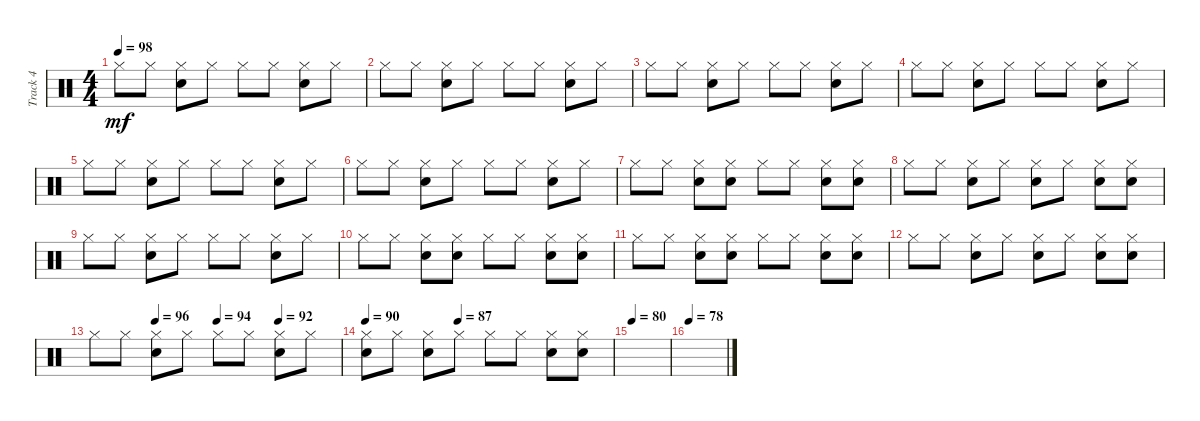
\track ("Track 4" "Track 4") {instrument percussion}
\staff {score}
\articulation defaults
\ts (4 4)
\tempo 98
\clef neutral
\ks c "Hi-Hat (closed)".8{dy mf} "Hi-Hat (closed)".8
("Hi-Hat (closed)" "Snare (hit) 2").8 "Hi-Hat (closed)".8 "Hi-Hat (closed)".8 "Hi-Hat (closed)".8 ("Hi-Hat (closed)" "Snare (hit) 2").8 "Hi-Hat (closed)".8 |
"Hi-Hat (closed)".8 "Hi-Hat (closed)".8 ("Hi-Hat (closed)" "Snare (hit) 2").8 "Hi-Hat (closed)".8 "Hi-Hat (closed)".8 "Hi-Hat (closed)".8 ("Hi-Hat (closed)" "Snare (hit) 2").8 "Hi-Hat (closed)".8 |
"Hi-Hat (closed)".8 "Hi-Hat (closed)".8 ("Hi-Hat (closed)" "Snare (hit) 2").8 "Hi-Hat (closed)".8 "Hi-Hat (closed)".8 "Hi-Hat (closed)".8 ("Hi-Hat (closed)" "Snare (hit) 2").8 "Hi-Hat (closed)".8 |
"Hi-Hat (closed)".8 "Hi-Hat (closed)".8 ("Hi-Hat (closed)" "Snare (hit) 2").8 "Hi-Hat (closed)".8 "Hi-Hat (closed)".8 "Hi-Hat (closed)".8 ("Hi-Hat (closed)" "Snare (hit) 2").8 "Hi-Hat (closed)".8 |
"Hi-Hat (closed)".8 "Hi-Hat (closed)".8 ("Hi-Hat (closed)" "Snare (hit) 2").8 "Hi-Hat (closed)".8 "Hi-Hat (closed)".8 "Hi-Hat (closed)".8 ("Hi-Hat (closed)" "Snare (hit) 2").8 "Hi-Hat (closed)".8 |
"Hi-Hat (closed)".8 "Hi-Hat (closed)".8 ("Hi-Hat (closed)" "Snare (hit) 2").8 "Hi-Hat (closed)".8 "Hi-Hat (closed)".8 "Hi-Hat (closed)".8 ("Hi-Hat (closed)" "Snare (hit) 2").8 "Hi-Hat (closed)".8 |
"Hi-Hat (closed)".8 "Hi-Hat (closed)".8 ("Hi-Hat (closed)" "Snare (hit) 2").8 ("Hi-Hat (closed)" "Snare (hit) 2").8 "Hi-Hat (closed)".8 "Hi-Hat (closed)".8 ("Hi-Hat (closed)" "Snare (hit) 2").8 ("Hi-Hat (closed)" "Snare (hit) 2").8 |
"Hi-Hat (closed)".8 "Hi-Hat (closed)".8 ("Hi-Hat (closed)" "Snare (hit) 2").8 "Hi-Hat (closed)".8 ("Hi-Hat (closed)" "Snare (hit) 2").8 "Hi-Hat (closed)".8 ("Hi-Hat (closed)" "Snare (hit) 2").8 ("Hi-Hat (closed)" "Snare (hit) 2").8 |
"Hi-Hat (closed)".8 "Hi-Hat (closed)".8 ("Hi-Hat (closed)" "Snare (hit) 2").8 "Hi-Hat (closed)".8 "Hi-Hat (closed)".8 "Hi-Hat (closed)".8 ("Hi-Hat (closed)" "Snare (hit) 2").8 "Hi-Hat (closed)".8 |
"Hi-Hat (closed)".8 "Hi-Hat (closed)".8 ("Hi-Hat (closed)" "Snare (hit) 2").8 ("Hi-Hat (closed)" "Snare (hit) 2").8 "Hi-Hat (closed)".8 "Hi-Hat (closed)".8 ("Hi-Hat (closed)" "Snare (hit) 2").8 ("Hi-Hat (closed)" "Snare (hit) 2").8 |
"Hi-Hat (closed)".8 "Hi-Hat (closed)".8 ("Hi-Hat (closed)" "Snare (hit) 2").8 ("Hi-Hat (closed)" "Snare (hit) 2").8 "Hi-Hat (closed)".8 "Hi-Hat (closed)".8 ("Hi-Hat (closed)" "Snare (hit) 2").8 ("Hi-Hat (closed)" "Snare (hit) 2").8 |
"Hi-Hat (closed)".8 "Hi-Hat (closed)".8 ("Hi-Hat (closed)" "Snare (hit) 2").8 "Hi-Hat (closed)".8 ("Hi-Hat (closed)" "Snare (hit) 2").8 "Hi-Hat (closed)".8 ("Hi-Hat (closed)" "Snare (hit) 2").8 ("Hi-Hat (closed)" "Snare (hit) 2").8 |
\tempo (96 0.25)
\tempo (94 0.5)
\tempo (92 0.75)
"Hi-Hat (closed)".8 "Hi-Hat (closed)".8 ("Hi-Hat (closed)" "Snare (hit) 2").8 "Hi-Hat (closed)".8 "Hi-Hat (closed)".8 "Hi-Hat (closed)".8 ("Hi-Hat (closed)" "Snare (hit) 2").8 "Hi-Hat (closed)".8 |
\tempo 90
\tempo (87 0.375)
("Hi-Hat (closed)" "Snare (hit) 2").8 "Hi-Hat (closed)".8 ("Snare (hit) 2" "Hi-Hat (closed)").8 "Hi-Hat (closed)".8 "Hi-Hat (closed)".8 "Hi-Hat (closed)".8 ("Snare (hit) 2" "Hi-Hat (closed)").8 ("Hi-Hat (closed)" "Snare (hit) 2").8 |
\tempo 80
|
\tempo 78
